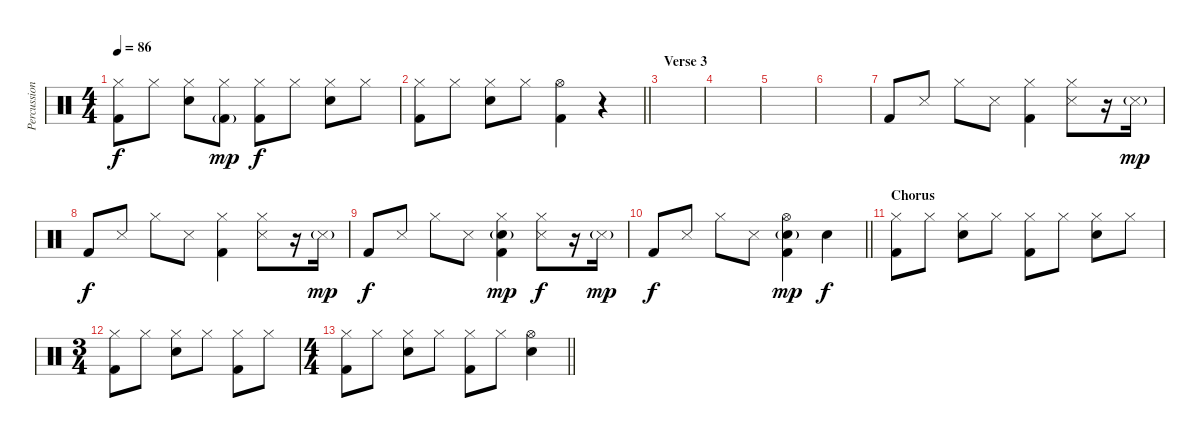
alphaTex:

\track ("Percussion" "Percussion") {instrument percussion}
\staff {score}
\articulation defaults
\ts (4 4)
\tempo 86
\clef neutral
\ks c
("Hi-Hat (closed)" "Kick (hit) 2").8{dy f} "Hi-Hat (closed)".8 ("Hi-Hat (closed)" "Snare (hit) 2").8 ("Hi-Hat (closed)" "Kick (hit) 2"{g}).8{dy mp} ("Hi-Hat (closed)" "Kick (hit) 2").8{dy f} "Hi-Hat (closed)".8 ("Hi-Hat (closed)" "Snare (hit) 2").8 "Hi-Hat (closed)".8 |
\barLineRight lightlight
("Hi-Hat (closed)" "Kick (hit) 2").8 "Hi-Hat (closed)".8 ("Hi-Hat (closed)" "Snare (hit) 2").8 "Hi-Hat (closed)".8 ("Hi-Hat (open)" "Kick (hit) 2").4 r.4 |
\section ("" "Verse 3")
|
|
|
|
"Kick (hit) 2".8 "Snare (side stick) 3".8 "Hi-Hat (closed)".8 "Snare (side stick) 3".8 ("Hi-Hat (closed)" "Kick (hit) 2").4 ("Hi-Hat (closed)" "Snare (side stick) 3").8 r.16 "Snare (side stick) 3"{g}.16{dy mp} |
"Kick (hit) 2".8{dy f} "Snare (side stick) 3".8 "Hi-Hat (closed)".8 "Snare (side stick) 3".8 ("Hi-Hat (closed)" "Kick (hit) 2").4 ("Hi-Hat (closed)" "Snare (side stick) 3").8 r.16 "Snare (side stick) 3"{g}.16{dy mp} |
"Kick (hit) 2".8{dy f} "Snare (side stick) 3".8 "Hi-Hat (closed)".8 "Snare (side stick) 3".8 ("Hi-Hat (closed)" "Snare (hit) 2"{g} "Kick (hit) 2").4{dy mp} ("Hi-Hat (closed)" "Snare (side stick) 3").8{dy f} r.16 "Snare (side stick) 3"{g}.16{dy mp} |
\barLineRight lightlight "Kick (hit) 2".8{dy f} "Snare (side stick) 3".8 "Hi-Hat (closed)".8 "Snare (side stick) 3".8
("Hi-Hat (open)" "Snare (hit) 2"{g} "Kick (hit) 2").4{dy mp} "Snare (hit) 2".4{dy f} |
\section ("" "Chorus")
("Hi-Hat (closed)" "Kick (hit) 2").8 "Hi-Hat (closed)".8 ("Hi-Hat (closed)" "Snare (hit) 2").8 "Hi-Hat (closed)".8 ("Hi-Hat (closed)" "Kick (hit) 2").8 "Hi-Hat (closed)".8 ("Hi-Hat (closed)" "Snare (hit) 2").8 "Hi-Hat (closed)".8 |
\ts (3 4)
("Hi-Hat (closed)" "Kick (hit) 2").8 "Hi-Hat (closed)".8 ("Hi-Hat (closed)" "Snare (hit) 2").8 "Hi-Hat (closed)".8 ("Hi-Hat (closed)" "Kick (hit) 2").8 "Hi-Hat (closed)".8 |
\ts (4 4)
\barLineRight lightlight
("Hi-Hat (closed)" "Kick (hit) 2").8 "Hi-Hat (closed)".8 ("Hi-Hat (closed)" "Snare (hit) 2").8 "Hi-Hat (closed)".8 ("Hi-Hat (closed)" "Kick (hit) 2").8 "Hi-Hat (closed)".8 ("Hi-Hat (open)" "Snare (hit) 2").4
